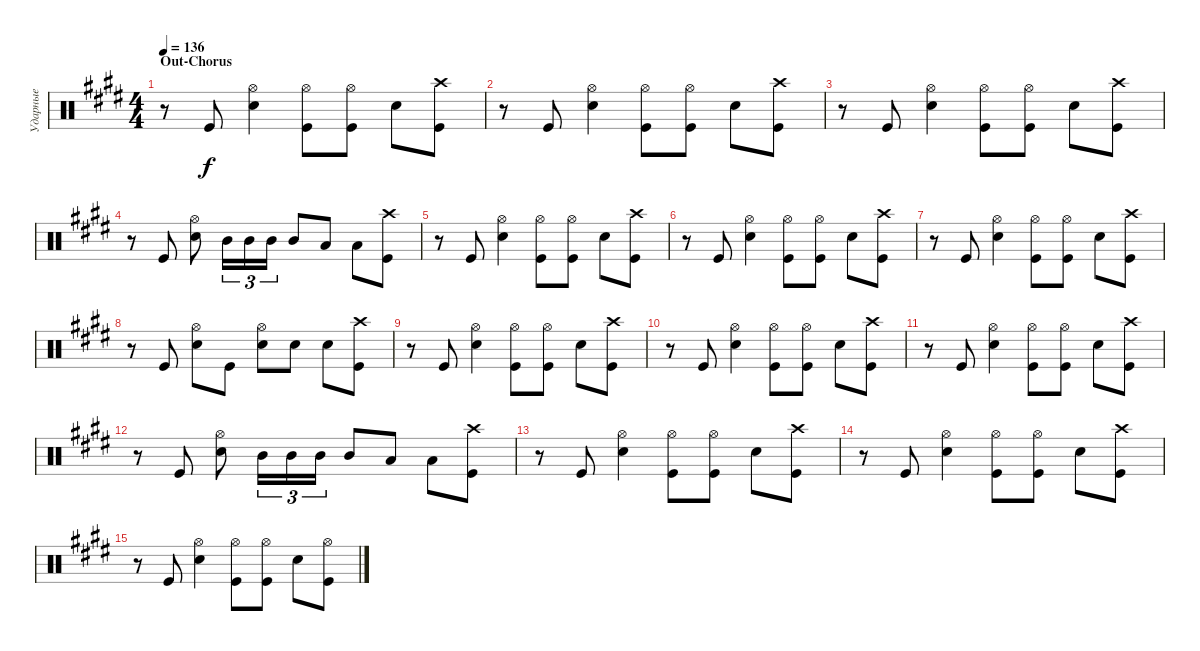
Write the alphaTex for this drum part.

\track ("Ударные" "Ударные") {instrument percussion}
\staff {score}
\articulation defaults
\ts (4 4)
\section ("" "Out-Chorus")
\tempo 136
\clef neutral
\ks c#minor
r.8{dy f} "Kick (hit)".8 ("Snare (hit) 2" "Hi-Hat (open)").4 ("Kick (hit)" "Hi-Hat (open)").8 ("Kick (hit)" "Hi-Hat (open)").8 "Snare (hit) 2".8 ("Kick (hit)" "Crash high (hit)").8 |
r.8 "Kick (hit)".8 ("Snare (hit) 2" "Hi-Hat (open)").4 ("Kick (hit)" "Hi-Hat (open)").8 ("Kick (hit)" "Hi-Hat (open)").8 "Snare (hit) 2".8 ("Kick (hit)" "Crash high (hit)").8 |
r.8 "Kick (hit)".8 ("Snare (hit) 2" "Hi-Hat (open)").4 ("Kick (hit)" "Hi-Hat (open)").8 ("Kick (hit)" "Hi-Hat (open)").8 "Snare (hit) 2".8 ("Kick (hit)" "Crash high (hit)").8 |
r.8 "Kick (hit)".8 ("Snare (hit) 2" "Hi-Hat (open)").8 "Mid Tom (hit)".16{tu (3 2)} "Mid Tom (hit)".16{tu (3 2)} "Mid Tom (hit)".16{tu (3 2)} "Mid Tom (hit)".8 "Low Tom (hit)".8 "Low Tom (hit)".8 ("Kick (hit)" "Crash high (hit)").8 |
r.8 "Kick (hit)".8 ("Snare (hit) 2" "Hi-Hat (open)").4 ("Kick (hit)" "Hi-Hat (open)").8 ("Kick (hit)" "Hi-Hat (open)").8 "Snare (hit) 2".8 ("Kick (hit)" "Crash high (hit)").8 |
r.8 "Kick (hit)".8 ("Snare (hit) 2" "Hi-Hat (open)").4 ("Kick (hit)" "Hi-Hat (open)").8 ("Kick (hit)" "Hi-Hat (open)").8 "Snare (hit) 2".8 ("Kick (hit)" "Crash high (hit)").8 |
r.8 "Kick (hit)".8 ("Snare (hit) 2" "Hi-Hat (open)").4 ("Kick (hit)" "Hi-Hat (open)").8 ("Kick (hit)" "Hi-Hat (open)").8 "Snare (hit) 2".8 ("Kick (hit)" "Crash high (hit)").8 |
r.8 "Kick (hit)".8 ("Snare (hit) 2" "Hi-Hat (open)").8 "Kick (hit)".8 ("Snare (hit) 2" "Hi-Hat (open)").8 "Snare (hit) 2".8 "Snare (hit) 2".8 ("Kick (hit)" "Crash high (hit)").8 |
r.8 "Kick (hit)".8 ("Snare (hit) 2" "Hi-Hat (open)").4 ("Kick (hit)" "Hi-Hat (open)").8 ("Kick (hit)" "Hi-Hat (open)").8 "Snare (hit) 2".8 ("Kick (hit)" "Crash high (hit)").8 |
r.8 "Kick (hit)".8 ("Snare (hit) 2" "Hi-Hat (open)").4 ("Kick (hit)" "Hi-Hat (open)").8 ("Kick (hit)" "Hi-Hat (open)").8 "Snare (hit) 2".8 ("Kick (hit)" "Crash high (hit)").8 |
r.8 "Kick (hit)".8 ("Snare (hit) 2" "Hi-Hat (open)").4 ("Kick (hit)" "Hi-Hat (open)").8 ("Kick (hit)" "Hi-Hat (open)").8 "Snare (hit) 2".8 ("Kick (hit)" "Crash high (hit)").8 |
r.8 "Kick (hit)".8 ("Snare (hit) 2" "Hi-Hat (open)").8 "Mid Tom (hit)".16{tu (3 2)} "Mid Tom (hit)".16{tu (3 2)} "Mid Tom (hit)".16{tu (3 2)} "Mid Tom (hit)".8 "Low Tom (hit)".8 "Low Tom (hit)".8 ("Kick (hit)" "Crash high (hit)").8 |
r.8 "Kick (hit)".8 ("Snare (hit) 2" "Hi-Hat (open)").4 ("Kick (hit)" "Hi-Hat (open)").8 ("Kick (hit)" "Hi-Hat (open)").8 "Snare (hit) 2".8 ("Kick (hit)" "Crash high (hit)").8 |
r.8 "Kick (hit)".8 ("Snare (hit) 2" "Hi-Hat (open)").4 ("Kick (hit)" "Hi-Hat (open)").8 ("Kick (hit)" "Hi-Hat (open)").8 "Snare (hit) 2".8 ("Kick (hit)" "Crash high (hit)").8 |
r.8 "Kick (hit)".8 ("Snare (hit) 2" "Hi-Hat (open)").4 ("Kick (hit)" "Hi-Hat (open)").8 ("Kick (hit)" "Hi-Hat (open)").8 "Snare (hit) 2".8 ("Kick (hit)" "Hi-Hat (open)").8
